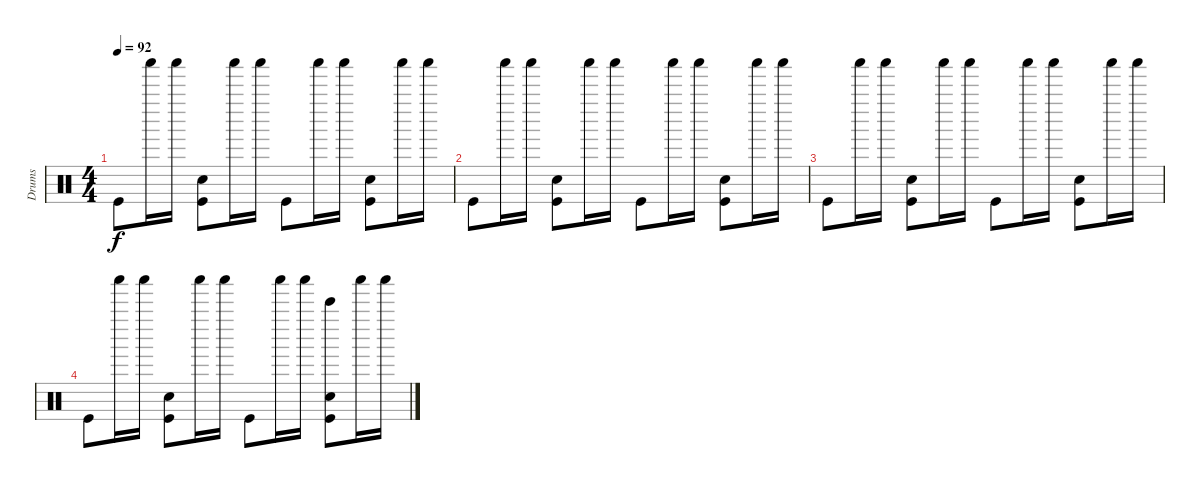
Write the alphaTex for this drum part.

\track ("Drums" "Drums") {instrument percussion}
\staff {score}
\articulation defaults
\ts (4 4)
\tempo 92
\clef neutral
\ks c "Kick (hit)".8{dy f} "Shaker (hit)".16 "Shaker (hit)".16
("Snare (hit) 2" "Kick (hit)").8 "Shaker (hit)".16 "Shaker (hit)".16 "Kick (hit)".8 "Shaker (hit)".16 "Shaker (hit)".16 ("Snare (hit) 2" "Kick (hit)").8 "Shaker (hit)".16 "Shaker (hit)".16 |
"Kick (hit)".8 "Shaker (hit)".16 "Shaker (hit)".16 ("Snare (hit) 2" "Kick (hit)").8 "Shaker (hit)".16 "Shaker (hit)".16 "Kick (hit)".8 "Shaker (hit)".16 "Shaker (hit)".16 ("Snare (hit) 2" "Kick (hit)").8 "Shaker (hit)".16 "Shaker (hit)".16 |
"Kick (hit)".8 "Shaker (hit)".16 "Shaker (hit)".16 ("Snare (hit) 2" "Kick (hit)").8 "Shaker (hit)".16 "Shaker (hit)".16 "Kick (hit)".8 "Shaker (hit)".16 "Shaker (hit)".16 ("Snare (hit) 2" "Kick (hit)").8 "Shaker (hit)".16 "Shaker (hit)".16 |
"Kick (hit)".8 "Shaker (hit)".16 "Shaker (hit)".16 ("Snare (hit) 2" "Kick (hit)").8 "Shaker (hit)".16 "Shaker (hit)".16 "Kick (hit)".8 "Shaker (hit)".16 "Shaker (hit)".16 ("Snare (hit) 2" "Bell Tree (hit)" "Kick (hit)").8 "Shaker (hit)".16 "Shaker (hit)".16
